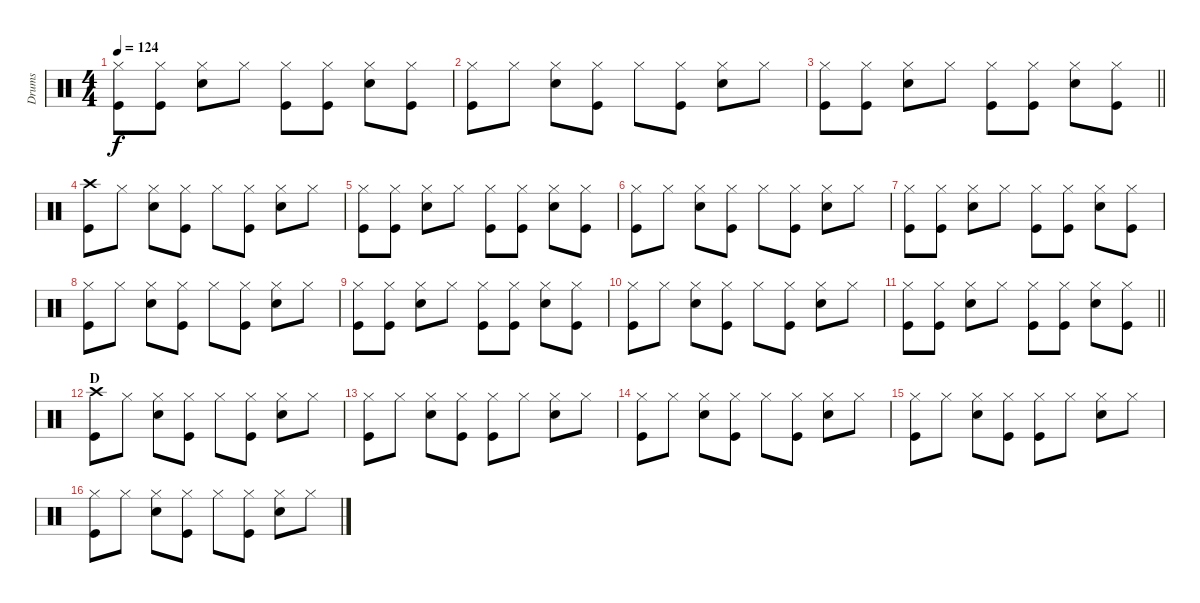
\track ("Drums" "Drums") {instrument percussion}
\staff {score}
\articulation defaults
\ts (4 4)
\tempo 124
\clef neutral
\ks c
("Hi-Hat (closed)" "Kick (hit)").8{dy f} ("Hi-Hat (closed)" "Kick (hit)").8 ("Hi-Hat (closed)" "Electric Snare (hit)").8 "Hi-Hat (closed)".8 ("Hi-Hat (closed)" "Kick (hit)").8 ("Hi-Hat (closed)" "Kick (hit)").8 ("Hi-Hat (closed)" "Electric Snare (hit)").8 ("Hi-Hat (closed)" "Kick (hit)").8 |
("Hi-Hat (closed)" "Kick (hit)").8 "Hi-Hat (closed)".8 ("Hi-Hat (closed)" "Electric Snare (hit)").8 ("Hi-Hat (closed)" "Kick (hit)").8 "Hi-Hat (closed)".8 ("Hi-Hat (closed)" "Kick (hit)").8 ("Hi-Hat (closed)" "Electric Snare (hit)").8 "Hi-Hat (closed)".8 |
\barLineRight lightlight
("Hi-Hat (closed)" "Kick (hit)").8 ("Hi-Hat (closed)" "Kick (hit)").8 ("Hi-Hat (closed)" "Electric Snare (hit)").8 "Hi-Hat (closed)".8 ("Hi-Hat (closed)" "Kick (hit)").8 ("Hi-Hat (closed)" "Kick (hit)").8 ("Hi-Hat (closed)" "Electric Snare (hit)").8 ("Hi-Hat (closed)" "Kick (hit)").8 |
("Crash high (hit)" "Kick (hit)").8 "Hi-Hat (closed)".8 ("Hi-Hat (closed)" "Electric Snare (hit)").8 ("Hi-Hat (closed)" "Kick (hit)").8 "Hi-Hat (closed)".8 ("Hi-Hat (closed)" "Kick (hit)").8 ("Hi-Hat (closed)" "Electric Snare (hit)").8 "Hi-Hat (closed)".8 |
("Hi-Hat (closed)" "Kick (hit)").8 ("Hi-Hat (closed)" "Kick (hit)").8 ("Hi-Hat (closed)" "Electric Snare (hit)").8 "Hi-Hat (closed)".8 ("Hi-Hat (closed)" "Kick (hit)").8 ("Hi-Hat (closed)" "Kick (hit)").8 ("Hi-Hat (closed)" "Electric Snare (hit)").8 ("Hi-Hat (closed)" "Kick (hit)").8 |
("Hi-Hat (closed)" "Kick (hit)").8 "Hi-Hat (closed)".8 ("Hi-Hat (closed)" "Electric Snare (hit)").8 ("Hi-Hat (closed)" "Kick (hit)").8 "Hi-Hat (closed)".8 ("Hi-Hat (closed)" "Kick (hit)").8 ("Hi-Hat (closed)" "Electric Snare (hit)").8 "Hi-Hat (closed)".8 |
("Hi-Hat (closed)" "Kick (hit)").8 ("Hi-Hat (closed)" "Kick (hit)").8 ("Hi-Hat (closed)" "Electric Snare (hit)").8 "Hi-Hat (closed)".8 ("Hi-Hat (closed)" "Kick (hit)").8 ("Hi-Hat (closed)" "Kick (hit)").8 ("Hi-Hat (closed)" "Electric Snare (hit)").8 ("Hi-Hat (closed)" "Kick (hit)").8 |
("Hi-Hat (closed)" "Kick (hit)").8 "Hi-Hat (closed)".8 ("Hi-Hat (closed)" "Electric Snare (hit)").8 ("Hi-Hat (closed)" "Kick (hit)").8 "Hi-Hat (closed)".8 ("Hi-Hat (closed)" "Kick (hit)").8 ("Hi-Hat (closed)" "Electric Snare (hit)").8 "Hi-Hat (closed)".8 |
("Hi-Hat (closed)" "Kick (hit)").8 ("Hi-Hat (closed)" "Kick (hit)").8 ("Hi-Hat (closed)" "Electric Snare (hit)").8 "Hi-Hat (closed)".8 ("Hi-Hat (closed)" "Kick (hit)").8 ("Hi-Hat (closed)" "Kick (hit)").8 ("Hi-Hat (closed)" "Electric Snare (hit)").8 ("Hi-Hat (closed)" "Kick (hit)").8 |
("Hi-Hat (closed)" "Kick (hit)").8 "Hi-Hat (closed)".8 ("Hi-Hat (closed)" "Electric Snare (hit)").8 ("Hi-Hat (closed)" "Kick (hit)").8 "Hi-Hat (closed)".8 ("Hi-Hat (closed)" "Kick (hit)").8 ("Hi-Hat (closed)" "Electric Snare (hit)").8 "Hi-Hat (closed)".8 |
\barLineRight lightlight
("Hi-Hat (closed)" "Kick (hit)").8 ("Hi-Hat (closed)" "Kick (hit)").8 ("Hi-Hat (closed)" "Electric Snare (hit)").8 "Hi-Hat (closed)".8 ("Hi-Hat (closed)" "Kick (hit)").8 ("Hi-Hat (closed)" "Kick (hit)").8 ("Hi-Hat (closed)" "Electric Snare (hit)").8 ("Hi-Hat (closed)" "Kick (hit)").8 |
\section ("" "D")
("Crash high (hit)" "Kick (hit)").8 "Hi-Hat (closed)".8 ("Hi-Hat (closed)" "Electric Snare (hit)").8 ("Hi-Hat (closed)" "Kick (hit)").8 "Hi-Hat (closed)".8 ("Hi-Hat (closed)" "Kick (hit)").8 ("Hi-Hat (closed)" "Electric Snare (hit)").8 "Hi-Hat (closed)".8 |
("Hi-Hat (closed)" "Kick (hit)").8 "Hi-Hat (closed)".8 ("Hi-Hat (closed)" "Electric Snare (hit)").8 ("Hi-Hat (closed)" "Kick (hit)").8 ("Hi-Hat (closed)" "Kick (hit)").8 "Hi-Hat (closed)".8 ("Hi-Hat (closed)" "Electric Snare (hit)").8 "Hi-Hat (closed)".8 |
("Hi-Hat (closed)" "Kick (hit)").8 "Hi-Hat (closed)".8 ("Hi-Hat (closed)" "Electric Snare (hit)").8 ("Hi-Hat (closed)" "Kick (hit)").8 "Hi-Hat (closed)".8 ("Hi-Hat (closed)" "Kick (hit)").8 ("Hi-Hat (closed)" "Electric Snare (hit)").8 "Hi-Hat (closed)".8 |
("Hi-Hat (closed)" "Kick (hit)").8 "Hi-Hat (closed)".8 ("Hi-Hat (closed)" "Electric Snare (hit)").8 ("Hi-Hat (closed)" "Kick (hit)").8 ("Hi-Hat (closed)" "Kick (hit)").8 "Hi-Hat (closed)".8 ("Hi-Hat (closed)" "Electric Snare (hit)").8 "Hi-Hat (closed)".8 |
("Hi-Hat (closed)" "Kick (hit)").8 "Hi-Hat (closed)".8 ("Hi-Hat (closed)" "Electric Snare (hit)").8 ("Hi-Hat (closed)" "Kick (hit)").8 "Hi-Hat (closed)".8 ("Hi-Hat (closed)" "Kick (hit)").8 ("Hi-Hat (closed)" "Electric Snare (hit)").8 "Hi-Hat (closed)".8
